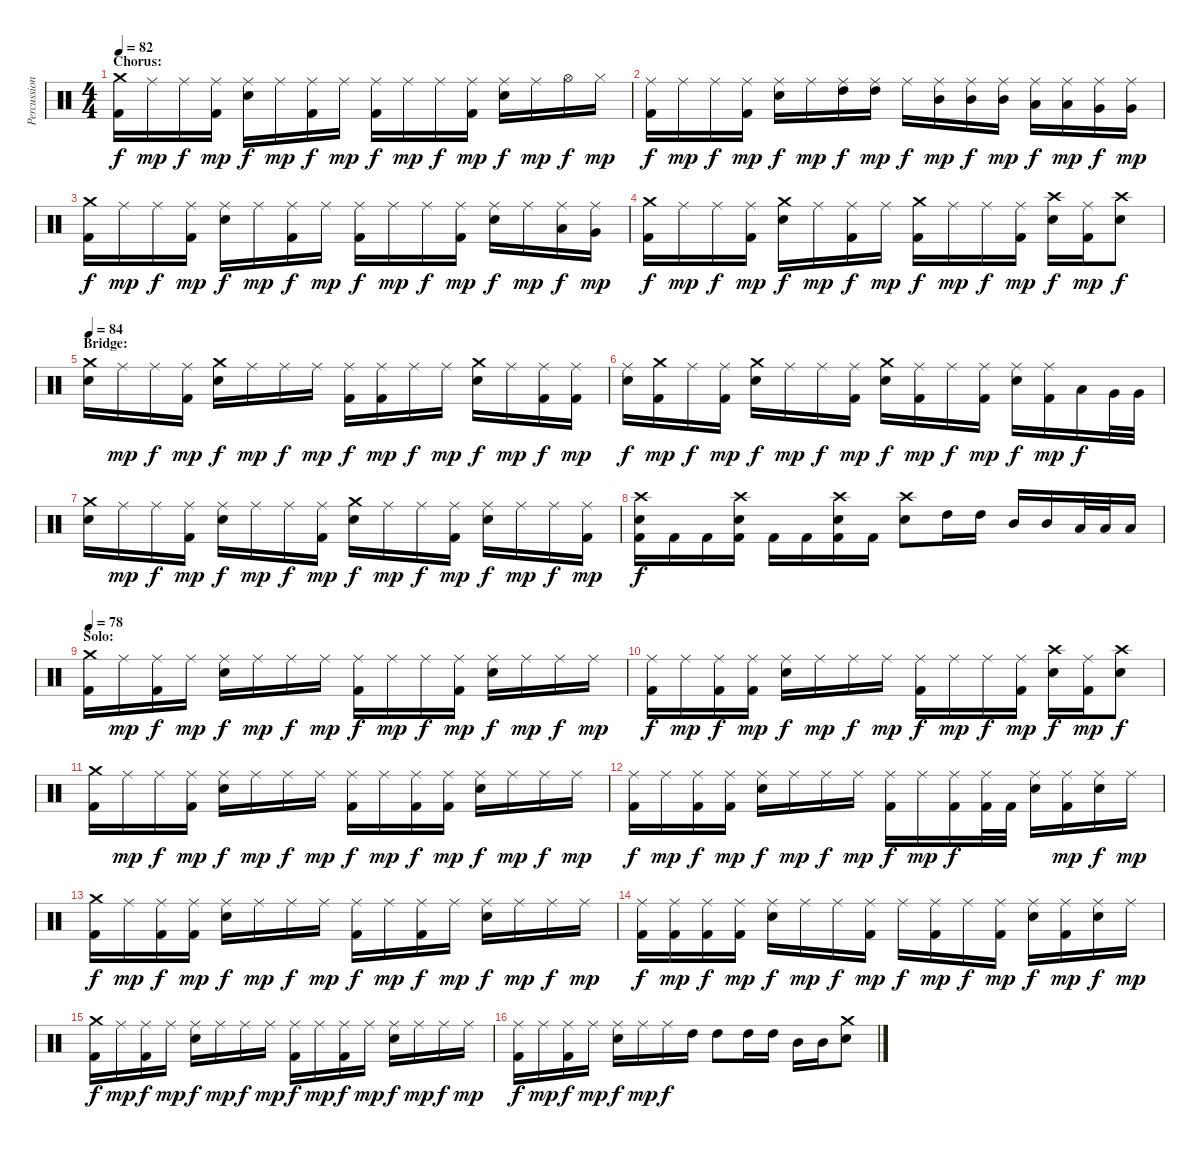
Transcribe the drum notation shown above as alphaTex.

\track ("Percussion" "Percussion") {instrument percussion}
\staff {score}
\articulation defaults
\ts (4 4)
\section ("" "Chorus:")
\tempo 82
\clef neutral
\ks c
("Crash medium (hit)" "Kick (hit) 2").16{dy f} "Ride (middle)".16{dy mp} "Ride (middle)".16{dy f} ("Ride (middle)" "Kick (hit) 2").16{dy mp} ("Ride (middle)" "Electric Snare (hit)").16{dy f} "Ride (middle)".16{dy mp} ("Ride (middle)" "Kick (hit) 2").16{dy f} "Ride (middle)".16{dy mp} ("Ride (middle)" "Kick (hit) 2").16{dy f} "Ride (middle)".16{dy mp} "Ride (middle)".16{dy f} ("Ride (middle)" "Kick (hit) 2").16{dy mp} ("Ride (middle)" "Electric Snare (hit)").16{dy f} "Ride (middle)".16{dy mp} "Hi-Hat (open)".16{dy f} "Hi-Hat (closed)".16{dy mp} |
("Ride (middle)" "Kick (hit) 2").16{dy f} "Ride (middle)".16{dy mp} "Ride (middle)".16{dy f} ("Ride (middle)" "Kick (hit) 2").16{dy mp} ("Ride (middle)" "Electric Snare (hit)").16{dy f} "Ride (middle)".16{dy mp} ("Ride (middle)" "High Tom (hit)").16{dy f} ("Ride (middle)" "High Tom (hit)").16{dy mp} "Ride (middle)".16{dy f} ("Ride (middle)" "Mid Tom (hit)").16{dy mp} ("Ride (middle)" "Mid Tom (hit)").16{dy f} ("Ride (middle)" "Mid Tom (hit)").16{dy mp} ("Ride (middle)" "Low Tom (hit)").16{dy f} ("Ride (middle)" "Low Tom (hit)").16{dy mp} ("Ride (middle)" "Very Low Tom (hit)").16{dy f} ("Ride (middle)" "Very Low Tom (hit)").16{dy mp} |
("Crash medium (hit)" "Kick (hit) 2").16{dy f} "Ride (middle)".16{dy mp} "Ride (middle)".16{dy f} ("Ride (middle)" "Kick (hit) 2").16{dy mp} ("Ride (middle)" "Electric Snare (hit)").16{dy f} "Ride (middle)".16{dy mp} ("Ride (middle)" "Kick (hit) 2").16{dy f} "Ride (middle)".16{dy mp} ("Ride (middle)" "Kick (hit) 2").16{dy f} "Ride (middle)".16{dy mp} "Ride (middle)".16{dy f} ("Ride (middle)" "Kick (hit) 2").16{dy mp} ("Ride (middle)" "Electric Snare (hit)").16{dy f} "Ride (middle)".16{dy mp} ("Ride (middle)" "Low Tom (hit)").16{dy f} ("Ride (middle)" "Very Low Tom (hit)").16{dy mp} |
("Crash medium (hit)" "Kick (hit) 2").16{dy f} "Ride (middle)".16{dy mp} "Ride (middle)".16{dy f} ("Ride (middle)" "Kick (hit) 2").16{dy mp} ("Crash medium (hit)" "Electric Snare (hit)").16{dy f} "Ride (middle)".16{dy mp} ("Ride (middle)" "Kick (hit) 2").16{dy f} "Ride (middle)".16{dy mp} ("Crash medium (hit)" "Kick (hit) 2").16{dy f} "Ride (middle)".16{dy mp} "Ride (middle)".16{dy f} ("Ride (middle)" "Kick (hit) 2").16{dy mp} ("Crash high (hit)" "Electric Snare (hit)").16{dy f} ("Ride (middle)" "Kick (hit) 2").16{dy mp} ("Crash high (hit)" "Electric Snare (hit)").8{dy f} |
\section ("" "Bridge:")
\tempo 84
("Crash medium (hit)" "Electric Snare (hit)").16 "Ride (middle)".16{dy mp} "Ride (middle)".16{dy f} ("Ride (middle)" "Kick (hit) 2").16{dy mp} ("Crash medium (hit)" "Electric Snare (hit)").16{dy f} "Ride (middle)".16{dy mp} "Ride (middle)".16{dy f} "Ride (middle)".16{dy mp} ("Ride (middle)" "Kick (hit) 2").16{dy f} ("Ride (middle)" "Kick (hit) 2").16{dy mp} "Ride (middle)".16{dy f} "Ride (middle)".16{dy mp} ("Crash medium (hit)" "Electric Snare (hit)").16{dy f} "Ride (middle)".16{dy mp} ("Ride (middle)" "Kick (hit) 2").16{dy f} ("Ride (middle)" "Kick (hit) 2").16{dy mp} |
("Ride (middle)" "Electric Snare (hit)").16{dy f} ("Crash medium (hit)" "Kick (hit) 2").16{dy mp} "Ride (middle)".16{dy f} ("Ride (middle)" "Kick (hit) 2").16{dy mp} ("Crash medium (hit)" "Electric Snare (hit)").16{dy f} "Ride (middle)".16{dy mp} "Ride (middle)".16{dy f} ("Ride (middle)" "Kick (hit) 2").16{dy mp} ("Crash medium (hit)" "Electric Snare (hit)").16{dy f} ("Ride (middle)" "Kick (hit) 2").16{dy mp} "Ride (middle)".16{dy f} ("Ride (middle)" "Kick (hit) 2").16{dy mp} ("Ride (middle)" "Electric Snare (hit)").16{dy f} ("Ride (middle)" "Kick (hit) 2").16{dy mp} "Low Tom (hit)".16{dy f} "Very Low Tom (hit)".32 "Very Low Tom (hit)".32 |
("Crash medium (hit)" "Electric Snare (hit)").16 "Ride (middle)".16{dy mp} "Ride (middle)".16{dy f} ("Ride (middle)" "Kick (hit) 2").16{dy mp} ("Ride (middle)" "Electric Snare (hit)").16{dy f} "Ride (middle)".16{dy mp} "Ride (middle)".16{dy f} ("Ride (middle)" "Kick (hit) 2").16{dy mp} ("Crash medium (hit)" "Electric Snare (hit)").16{dy f} "Ride (middle)".16{dy mp} "Ride (middle)".16{dy f} ("Ride (middle)" "Kick (hit) 2").16{dy mp} ("Ride (middle)" "Electric Snare (hit)").16{dy f} "Ride (middle)".16{dy mp} "Ride (middle)".16{dy f} ("Ride (middle)" "Kick (hit) 2").16{dy mp} |
("Crash high (hit)" "Electric Snare (hit)" "Kick (hit) 2").16{dy f} "Kick (hit) 2".16 "Kick (hit) 2".16 ("Crash high (hit)" "Electric Snare (hit)" "Kick (hit) 2").16 "Kick (hit) 2".16 "Kick (hit) 2".16 ("Crash high (hit)" "Electric Snare (hit)" "Kick (hit) 2").16 "Kick (hit) 2".16 ("Crash high (hit)" "Electric Snare (hit)").8 "High Tom (hit)".16 "High Tom (hit)".16 "Mid Tom (hit)".16 "Mid Tom (hit)".16 "Low Tom (hit)".32 "Low Tom (hit)".32 "Low Tom (hit)".16 |
\section ("" "Solo:")
\tempo 78
("Crash medium (hit)" "Kick (hit) 2").16 "Ride (middle)".16{dy mp} ("Ride (middle)" "Kick (hit) 2").16{dy f} "Ride (middle)".16{dy mp} ("Ride (middle)" "Electric Snare (hit)").16{dy f} "Ride (middle)".16{dy mp} "Ride (middle)".16{dy f} "Ride (middle)".16{dy mp} ("Ride (middle)" "Kick (hit) 2").16{dy f} "Ride (middle)".16{dy mp} "Ride (middle)".16{dy f} ("Ride (middle)" "Kick (hit) 2").16{dy mp} ("Ride (middle)" "Electric Snare (hit)").16{dy f} "Ride (middle)".16{dy mp} "Ride (middle)".16{dy f} "Ride (middle)".16{dy mp} |
("Ride (middle)" "Kick (hit) 2").16{dy f} "Ride (middle)".16{dy mp} ("Ride (middle)" "Kick (hit) 2").16{dy f} ("Ride (middle)" "Kick (hit) 2").16{dy mp} ("Ride (middle)" "Electric Snare (hit)").16{dy f} "Ride (middle)".16{dy mp} "Ride (middle)".16{dy f} "Ride (middle)".16{dy mp} ("Ride (middle)" "Kick (hit) 2").16{dy f} "Ride (middle)".16{dy mp} "Ride (middle)".16{dy f} ("Ride (middle)" "Kick (hit) 2").16{dy mp} ("Crash high (hit)" "Electric Snare (hit)").16{dy f} ("Ride (middle)" "Kick (hit) 2").16{dy mp} ("Crash high (hit)" "Electric Snare (hit)").8{dy f} |
("Crash medium (hit)" "Kick (hit) 2").16 "Ride (middle)".16{dy mp} "Ride (middle)".16{dy f} ("Ride (middle)" "Kick (hit) 2").16{dy mp} ("Ride (middle)" "Electric Snare (hit)").16{dy f} "Ride (middle)".16{dy mp} "Ride (middle)".16{dy f} "Ride (middle)".16{dy mp} ("Ride (middle)" "Kick (hit) 2").16{dy f} "Ride (middle)".16{dy mp} ("Ride (middle)" "Kick (hit) 2").16{dy f} ("Ride (middle)" "Kick (hit) 2").16{dy mp} ("Ride (middle)" "Electric Snare (hit)").16{dy f} "Ride (middle)".16{dy mp} "Ride (middle)".16{dy f} "Ride (middle)".16{dy mp} |
("Ride (middle)" "Kick (hit) 2").16{dy f} "Ride (middle)".16{dy mp} ("Ride (middle)" "Kick (hit) 2").16{dy f} ("Ride (middle)" "Kick (hit) 2").16{dy mp} ("Ride (middle)" "Electric Snare (hit)").16{dy f} "Ride (middle)".16{dy mp} "Ride (middle)".16{dy f} "Ride (middle)".16{dy mp} ("Ride (middle)" "Kick (hit) 2").16{dy f} "Ride (middle)".16{dy mp} ("Ride (middle)" "Kick (hit) 2").16{dy f} ("Ride (middle)" "Kick (hit) 2").32 "Kick (hit) 2".32 ("Ride (middle)" "Electric Snare (hit)").16 ("Ride (middle)" "Kick (hit) 2").16{dy mp} ("Ride (middle)" "Electric Snare (hit)").16{dy f} "Ride (middle)".16{dy mp} |
("Crash medium (hit)" "Kick (hit) 2").16{dy f} "Ride (middle)".16{dy mp} ("Ride (middle)" "Kick (hit) 2").16{dy f} ("Ride (middle)" "Kick (hit) 2").16{dy mp} ("Ride (middle)" "Electric Snare (hit)").16{dy f} "Ride (middle)".16{dy mp} "Ride (middle)".16{dy f} "Ride (middle)".16{dy mp} ("Ride (middle)" "Kick (hit) 2").16{dy f} "Ride (middle)".16{dy mp} ("Ride (middle)" "Kick (hit) 2").16{dy f} "Ride (middle)".16{dy mp} ("Ride (middle)" "Electric Snare (hit)").16{dy f} "Ride (middle)".16{dy mp} "Ride (middle)".16{dy f} "Ride (middle)".16{dy mp} |
("Ride (middle)" "Kick (hit) 2").16{dy f} ("Ride (middle)" "Kick (hit) 2").16{dy mp} ("Ride (middle)" "Kick (hit) 2").16{dy f} ("Ride (middle)" "Kick (hit) 2").16{dy mp} ("Ride (middle)" "Electric Snare (hit)").16{dy f} "Ride (middle)".16{dy mp} "Ride (middle)".16{dy f} ("Ride (middle)" "Kick (hit) 2").16{dy mp} "Ride (middle)".16{dy f} ("Ride (middle)" "Kick (hit) 2").16{dy mp} "Ride (middle)".16{dy f} ("Ride (middle)" "Kick (hit) 2").16{dy mp} ("Ride (middle)" "Electric Snare (hit)").16{dy f} ("Ride (middle)" "Kick (hit) 2").16{dy mp} ("Ride (middle)" "Electric Snare (hit)").16{dy f} "Ride (middle)".16{dy mp} |
("Crash medium (hit)" "Kick (hit) 2").16{dy f} "Ride (middle)".16{dy mp} ("Ride (middle)" "Kick (hit) 2").16{dy f} "Ride (middle)".16{dy mp} ("Ride (middle)" "Electric Snare (hit)").16{dy f} "Ride (middle)".16{dy mp} "Ride (middle)".16{dy f} "Ride (middle)".16{dy mp} ("Ride (middle)" "Kick (hit) 2").16{dy f} "Ride (middle)".16{dy mp} ("Ride (middle)" "Kick (hit) 2").16{dy f} "Ride (middle)".16{dy mp} ("Ride (middle)" "Electric Snare (hit)").16{dy f} "Ride (middle)".16{dy mp} "Ride (middle)".16{dy f} "Ride (middle)".16{dy mp} |
("Ride (middle)" "Kick (hit) 2").16{dy f} "Ride (middle)".16{dy mp} ("Ride (middle)" "Kick (hit) 2").16{dy f} "Ride (middle)".16{dy mp} ("Ride (middle)" "Electric Snare (hit)").16{dy f} "Ride (middle)".16{dy mp} "Ride (middle)".16{dy f} "High Tom (hit)".16 "High Tom (hit)".8 "High Tom (hit)".16 "High Tom (hit)".16 "Mid Tom (hit)".16 "Mid Tom (hit)".16 ("Crash medium (hit)" "Electric Snare (hit)").8
